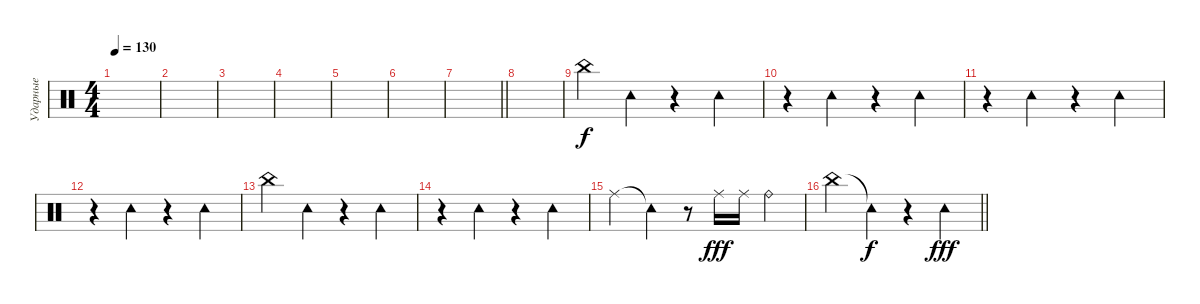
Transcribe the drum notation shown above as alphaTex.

\track ("Ударные" "Ударные") {instrument percussion}
\staff {score}
\articulation defaults
\ts (4 4)
\tempo 130
\clef neutral
\ks c
|
|
|
|
|
|
\barLineRight lightlight
|
|
"China (hit)".4 "Tambourine (hit)".4 r.4 "Tambourine (hit)".4 |
r.4 "Tambourine (hit)".4 r.4 "Tambourine (hit)".4 |
r.4 "Tambourine (hit)".4 r.4 "Tambourine (hit)".4 |
r.4 "Tambourine (hit)".4 r.4 "Tambourine (hit)".4 |
"China (hit)".4 "Tambourine (hit)".4 r.4 "Tambourine (hit)".4 |
r.4 "Tambourine (hit)".4 r.4 "Tambourine (hit)".4 |
"Ride (middle)".4 "Tambourine (hit)"{t}.4{dy f} r.8 "Ride (middle)".16{dy fff} "Ride (middle)".16 "Ride (bell)".4 |
\barLineRight lightlight "China (hit)".4 "Tambourine (hit)"{t}.4{dy f}
r.4 "Tambourine (hit)".4{dy fff}
